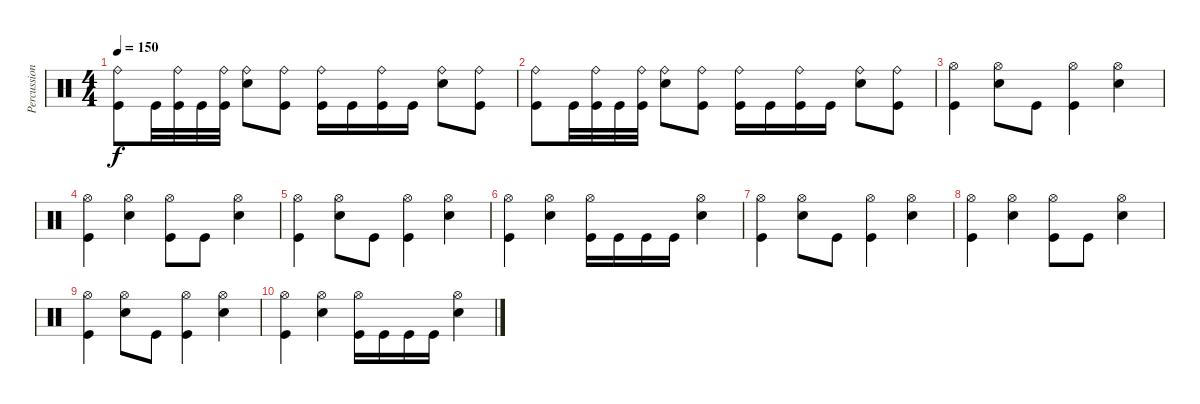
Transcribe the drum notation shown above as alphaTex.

\track ("Percussion" "Percussion") {instrument percussion}
\staff {score}
\articulation defaults
\ts (4 4)
\tempo 150
\clef neutral
\ks c
("Kick (hit)" "Ride (bell)").8{dy f} "Kick (hit)".32 ("Kick (hit)" "Ride (bell)").32 "Kick (hit)".32 ("Kick (hit)" "Ride (bell)").32 ("Electric Snare (hit)" "Ride (bell)").8 ("Kick (hit)" "Ride (bell)").8 ("Kick (hit)" "Ride (bell)").16 "Kick (hit)".16 ("Kick (hit)" "Ride (bell)").16 "Kick (hit)".16 ("Electric Snare (hit)" "Ride (bell)").8 ("Kick (hit)" "Ride (bell)").8 |
("Kick (hit)" "Ride (bell)").8 "Kick (hit)".32 ("Kick (hit)" "Ride (bell)").32 "Kick (hit)".32 ("Kick (hit)" "Ride (bell)").32 ("Electric Snare (hit)" "Ride (bell)").8 ("Kick (hit)" "Ride (bell)").8 ("Kick (hit)" "Ride (bell)").16 "Kick (hit)".16 ("Kick (hit)" "Ride (bell)").16 "Kick (hit)".16 ("Electric Snare (hit)" "Ride (bell)").8 ("Kick (hit)" "Ride (bell)").8 |
("Kick (hit)" "Hi-Hat (open)").4 ("Electric Snare (hit)" "Hi-Hat (open)").8 "Kick (hit)".8 ("Kick (hit)" "Hi-Hat (open)").4 ("Electric Snare (hit)" "Hi-Hat (open)").4 |
("Kick (hit)" "Hi-Hat (open)").4 ("Electric Snare (hit)" "Hi-Hat (open)").4 ("Kick (hit)" "Hi-Hat (open)").8 "Kick (hit)".8 ("Electric Snare (hit)" "Hi-Hat (open)").4 |
("Kick (hit)" "Hi-Hat (open)").4 ("Electric Snare (hit)" "Hi-Hat (open)").8 "Kick (hit)".8 ("Kick (hit)" "Hi-Hat (open)").4 ("Electric Snare (hit)" "Hi-Hat (open)").4 |
("Kick (hit)" "Hi-Hat (open)").4 ("Electric Snare (hit)" "Hi-Hat (open)").4 ("Kick (hit)" "Hi-Hat (open)").16 "Kick (hit)".16 "Kick (hit)".16 "Kick (hit)".16 ("Electric Snare (hit)" "Hi-Hat (open)").4 |
("Kick (hit)" "Hi-Hat (open)").4 ("Electric Snare (hit)" "Hi-Hat (open)").8 "Kick (hit)".8 ("Kick (hit)" "Hi-Hat (open)").4 ("Electric Snare (hit)" "Hi-Hat (open)").4 |
("Kick (hit)" "Hi-Hat (open)").4 ("Electric Snare (hit)" "Hi-Hat (open)").4 ("Kick (hit)" "Hi-Hat (open)").8 "Kick (hit)".8 ("Electric Snare (hit)" "Hi-Hat (open)").4 |
("Kick (hit)" "Hi-Hat (open)").4 ("Electric Snare (hit)" "Hi-Hat (open)").8 "Kick (hit)".8 ("Kick (hit)" "Hi-Hat (open)").4 ("Electric Snare (hit)" "Hi-Hat (open)").4 |
("Kick (hit)" "Hi-Hat (open)").4 ("Electric Snare (hit)" "Hi-Hat (open)").4 ("Kick (hit)" "Hi-Hat (open)").16 "Kick (hit)".16 "Kick (hit)".16 "Kick (hit)".16 ("Electric Snare (hit)" "Hi-Hat (open)").4
